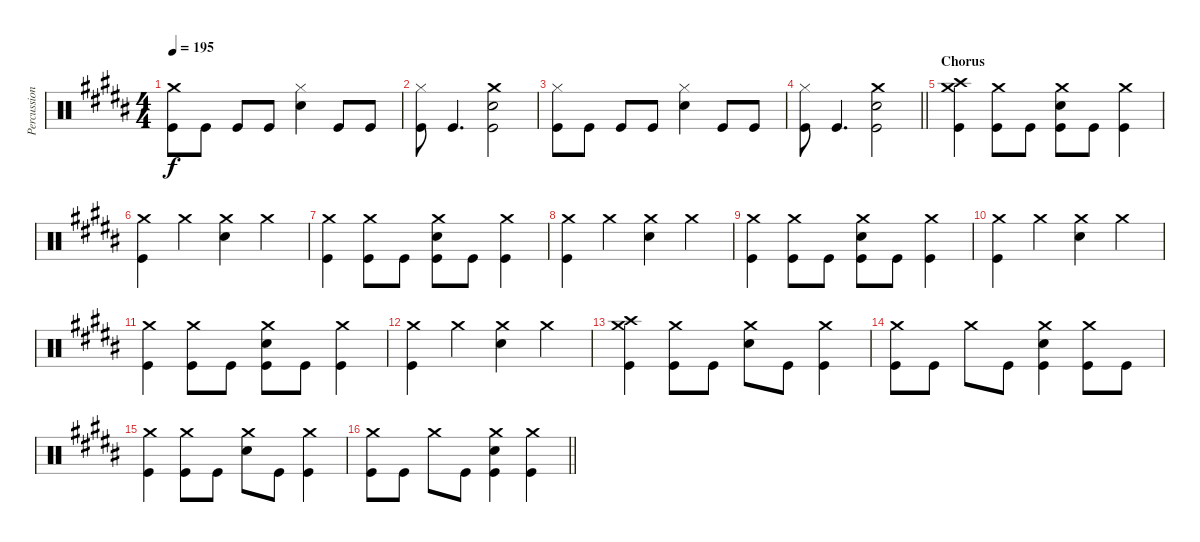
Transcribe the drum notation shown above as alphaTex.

\track ("Percussion" "Percussion") {instrument percussion}
\staff {score}
\articulation defaults
\ts (4 4)
\tempo 195
\clef neutral
\ks b
("Crash medium (hit)" "Kick (hit)").8{dy f} "Kick (hit)".8 "Kick (hit)".8 "Kick (hit)".8 ("Hi-Hat (closed)" "Electric Snare (hit)").4 "Kick (hit)".8 "Kick (hit)".8 |
("Hi-Hat (closed)" "Kick (hit)").8 "Kick (hit)".4{d} ("Crash medium (hit)" "Electric Snare (hit)" "Kick (hit)").2 |
("Hi-Hat (closed)" "Kick (hit)").8 "Kick (hit)".8 "Kick (hit)".8 "Kick (hit)".8 ("Hi-Hat (closed)" "Electric Snare (hit)").4 "Kick (hit)".8 "Kick (hit)".8 |
\barLineRight lightlight
("Hi-Hat (closed)" "Kick (hit)").8 "Kick (hit)".4{d} ("Crash medium (hit)" "Electric Snare (hit)" "Kick (hit)").2 |
\section ("" "Chorus")
("Crash high (hit)" "Crash medium (hit)" "Kick (hit)").4 ("Crash medium (hit)" "Kick (hit)").8 "Kick (hit)".8 ("Crash medium (hit)" "Electric Snare (hit)" "Kick (hit)").8 "Kick (hit)".8 ("Crash medium (hit)" "Kick (hit)").4 |
("Crash medium (hit)" "Kick (hit)").4 "Crash medium (hit)".4 ("Crash medium (hit)" "Electric Snare (hit)").4 "Crash medium (hit)".4 |
("Crash medium (hit)" "Kick (hit)").4 ("Crash medium (hit)" "Kick (hit)").8 "Kick (hit)".8 ("Crash medium (hit)" "Electric Snare (hit)" "Kick (hit)").8 "Kick (hit)".8 ("Crash medium (hit)" "Kick (hit)").4 |
("Crash medium (hit)" "Kick (hit)").4 "Crash medium (hit)".4 ("Crash medium (hit)" "Electric Snare (hit)").4 "Crash medium (hit)".4 |
("Crash medium (hit)" "Kick (hit)").4 ("Crash medium (hit)" "Kick (hit)").8 "Kick (hit)".8 ("Crash medium (hit)" "Electric Snare (hit)" "Kick (hit)").8 "Kick (hit)".8 ("Crash medium (hit)" "Kick (hit)").4 |
("Crash medium (hit)" "Kick (hit)").4 "Crash medium (hit)".4 ("Crash medium (hit)" "Electric Snare (hit)").4 "Crash medium (hit)".4 |
("Crash medium (hit)" "Kick (hit)").4 ("Crash medium (hit)" "Kick (hit)").8 "Kick (hit)".8 ("Crash medium (hit)" "Electric Snare (hit)" "Kick (hit)").8 "Kick (hit)".8 ("Crash medium (hit)" "Kick (hit)").4 |
("Crash medium (hit)" "Kick (hit)").4 "Crash medium (hit)".4 ("Crash medium (hit)" "Electric Snare (hit)").4 "Crash medium (hit)".4 |
("Crash high (hit)" "Crash medium (hit)" "Kick (hit)").4 ("Crash medium (hit)" "Kick (hit)").8 "Kick (hit)".8 ("Crash medium (hit)" "Electric Snare (hit)").8 "Kick (hit)".8 ("Crash medium (hit)" "Kick (hit)").4 |
("Crash medium (hit)" "Kick (hit)").8 "Kick (hit)".8 "Crash medium (hit)".8 "Kick (hit)".8 ("Crash medium (hit)" "Electric Snare (hit)" "Kick (hit)").4 ("Crash medium (hit)" "Kick (hit)").8 "Kick (hit)".8 |
("Crash medium (hit)" "Kick (hit)").4 ("Crash medium (hit)" "Kick (hit)").8 "Kick (hit)".8 ("Crash medium (hit)" "Electric Snare (hit)").8 "Kick (hit)".8 ("Crash medium (hit)" "Kick (hit)").4 |
\barLineRight lightlight
("Crash medium (hit)" "Kick (hit)").8 "Kick (hit)".8 "Crash medium (hit)".8 "Kick (hit)".8 ("Crash medium (hit)" "Electric Snare (hit)" "Kick (hit)").4 ("Crash medium (hit)" "Kick (hit)").4
